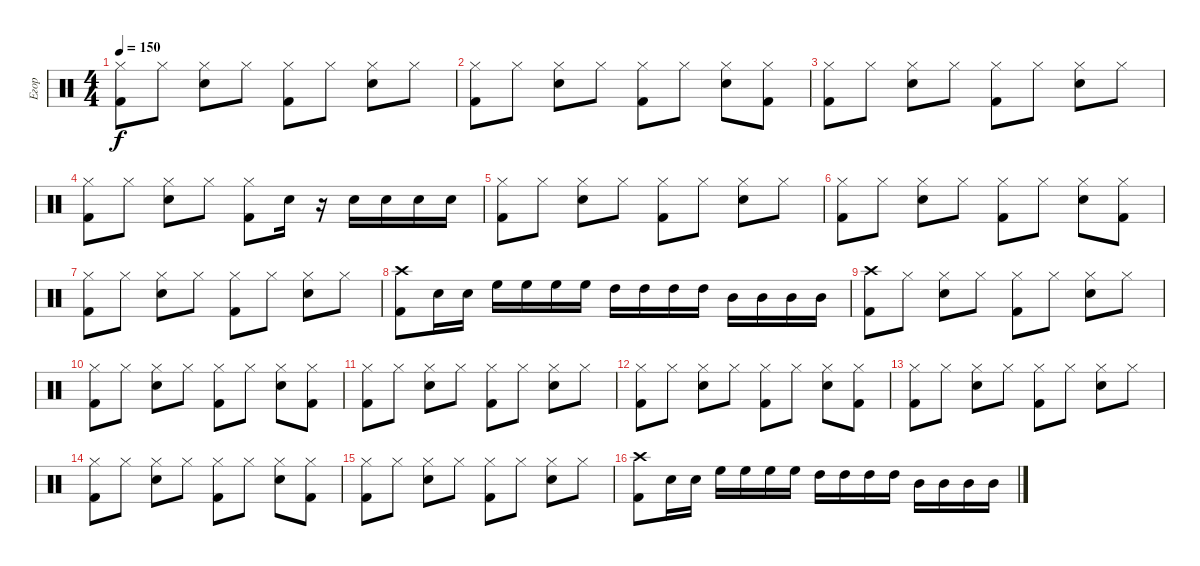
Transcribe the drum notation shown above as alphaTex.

\track ("Егор" "Егор") {instrument percussion}
\staff {score}
\articulation defaults
\ts (4 4)
\tempo 150
\clef neutral
\ks c
("Hi-Hat (closed)" "Kick (hit) 2").8{dy f} "Hi-Hat (closed)".8 ("Hi-Hat (closed)" "Snare (hit) 2").8 "Hi-Hat (closed)".8 ("Hi-Hat (closed)" "Kick (hit) 2").8 "Hi-Hat (closed)".8 ("Hi-Hat (closed)" "Snare (hit) 2").8 "Hi-Hat (closed)".8 |
("Hi-Hat (closed)" "Kick (hit) 2").8 "Hi-Hat (closed)".8 ("Hi-Hat (closed)" "Snare (hit) 2").8 "Hi-Hat (closed)".8 ("Hi-Hat (closed)" "Kick (hit) 2").8 "Hi-Hat (closed)".8 ("Hi-Hat (closed)" "Snare (hit) 2").8 ("Hi-Hat (closed)" "Kick (hit) 2").8 |
("Hi-Hat (closed)" "Kick (hit) 2").8 "Hi-Hat (closed)".8 ("Hi-Hat (closed)" "Snare (hit) 2").8 "Hi-Hat (closed)".8 ("Hi-Hat (closed)" "Kick (hit) 2").8 "Hi-Hat (closed)".8 ("Hi-Hat (closed)" "Snare (hit) 2").8 "Hi-Hat (closed)".8 |
("Hi-Hat (closed)" "Kick (hit) 2").8 "Hi-Hat (closed)".8 ("Hi-Hat (closed)" "Snare (hit) 2").8 "Hi-Hat (closed)".8 ("Hi-Hat (closed)" "Kick (hit) 2").8 "Snare (hit) 2".16 r.16 "Snare (hit) 2".16 "Snare (hit) 2".16 "Snare (hit) 2".16 "Snare (hit) 2".16 |
("Hi-Hat (closed)" "Kick (hit) 2").8 "Hi-Hat (closed)".8 ("Hi-Hat (closed)" "Snare (hit) 2").8 "Hi-Hat (closed)".8 ("Hi-Hat (closed)" "Kick (hit) 2").8 "Hi-Hat (closed)".8 ("Hi-Hat (closed)" "Snare (hit) 2").8 "Hi-Hat (closed)".8 |
("Hi-Hat (closed)" "Kick (hit) 2").8 "Hi-Hat (closed)".8 ("Hi-Hat (closed)" "Snare (hit) 2").8 "Hi-Hat (closed)".8 ("Hi-Hat (closed)" "Kick (hit) 2").8 "Hi-Hat (closed)".8 ("Hi-Hat (closed)" "Snare (hit) 2").8 ("Hi-Hat (closed)" "Kick (hit) 2").8 |
("Hi-Hat (closed)" "Kick (hit) 2").8 "Hi-Hat (closed)".8 ("Hi-Hat (closed)" "Snare (hit) 2").8 "Hi-Hat (closed)".8 ("Hi-Hat (closed)" "Kick (hit) 2").8 "Hi-Hat (closed)".8 ("Hi-Hat (closed)" "Snare (hit) 2").8 "Hi-Hat (closed)".8 |
("Crash high (hit)" "Kick (hit) 2").8 "Snare (hit) 2".16 "Snare (hit) 2".16 "High Floor Tom (hit)".16 "High Floor Tom (hit)".16 "High Floor Tom (hit)".16 "High Floor Tom (hit)".16 "High Tom (hit)".16 "High Tom (hit)".16 "High Tom (hit)".16 "High Tom (hit)".16 "Mid Tom (hit)".16 "Mid Tom (hit)".16 "Mid Tom (hit)".16 "Mid Tom (hit)".16 |
("Crash high (hit)" "Kick (hit) 2").8 "Hi-Hat (closed)".8 ("Hi-Hat (closed)" "Snare (hit) 2").8 "Hi-Hat (closed)".8 ("Hi-Hat (closed)" "Kick (hit) 2").8 "Hi-Hat (closed)".8 ("Hi-Hat (closed)" "Snare (hit) 2").8 "Hi-Hat (closed)".8 |
("Hi-Hat (closed)" "Kick (hit) 2").8 "Hi-Hat (closed)".8 ("Hi-Hat (closed)" "Snare (hit) 2").8 "Hi-Hat (closed)".8 ("Hi-Hat (closed)" "Kick (hit) 2").8 "Hi-Hat (closed)".8 ("Hi-Hat (closed)" "Snare (hit) 2").8 ("Hi-Hat (closed)" "Kick (hit) 2").8 |
("Hi-Hat (closed)" "Kick (hit) 2").8 "Hi-Hat (closed)".8 ("Hi-Hat (closed)" "Snare (hit) 2").8 "Hi-Hat (closed)".8 ("Hi-Hat (closed)" "Kick (hit) 2").8 "Hi-Hat (closed)".8 ("Hi-Hat (closed)" "Snare (hit) 2").8 "Hi-Hat (closed)".8 |
("Hi-Hat (closed)" "Kick (hit) 2").8 "Hi-Hat (closed)".8 ("Hi-Hat (closed)" "Snare (hit) 2").8 "Hi-Hat (closed)".8 ("Hi-Hat (closed)" "Kick (hit) 2").8 "Hi-Hat (closed)".8 ("Hi-Hat (closed)" "Snare (hit) 2").8 ("Hi-Hat (closed)" "Kick (hit) 2").8 |
("Hi-Hat (closed)" "Kick (hit) 2").8 "Hi-Hat (closed)".8 ("Hi-Hat (closed)" "Snare (hit) 2").8 "Hi-Hat (closed)".8 ("Hi-Hat (closed)" "Kick (hit) 2").8 "Hi-Hat (closed)".8 ("Hi-Hat (closed)" "Snare (hit) 2").8 "Hi-Hat (closed)".8 |
("Hi-Hat (closed)" "Kick (hit) 2").8 "Hi-Hat (closed)".8 ("Hi-Hat (closed)" "Snare (hit) 2").8 "Hi-Hat (closed)".8 ("Hi-Hat (closed)" "Kick (hit) 2").8 "Hi-Hat (closed)".8 ("Hi-Hat (closed)" "Snare (hit) 2").8 ("Hi-Hat (closed)" "Kick (hit) 2").8 |
("Hi-Hat (closed)" "Kick (hit) 2").8 "Hi-Hat (closed)".8 ("Hi-Hat (closed)" "Snare (hit) 2").8 "Hi-Hat (closed)".8 ("Hi-Hat (closed)" "Kick (hit) 2").8 "Hi-Hat (closed)".8 ("Hi-Hat (closed)" "Snare (hit) 2").8 "Hi-Hat (closed)".8 |
("Crash high (hit)" "Kick (hit) 2").8 "Snare (hit) 2".16 "Snare (hit) 2".16 "High Floor Tom (hit)".16 "High Floor Tom (hit)".16 "High Floor Tom (hit)".16 "High Floor Tom (hit)".16 "High Tom (hit)".16 "High Tom (hit)".16 "High Tom (hit)".16 "High Tom (hit)".16 "Mid Tom (hit)".16 "Mid Tom (hit)".16 "Mid Tom (hit)".16 "Mid Tom (hit)".16
